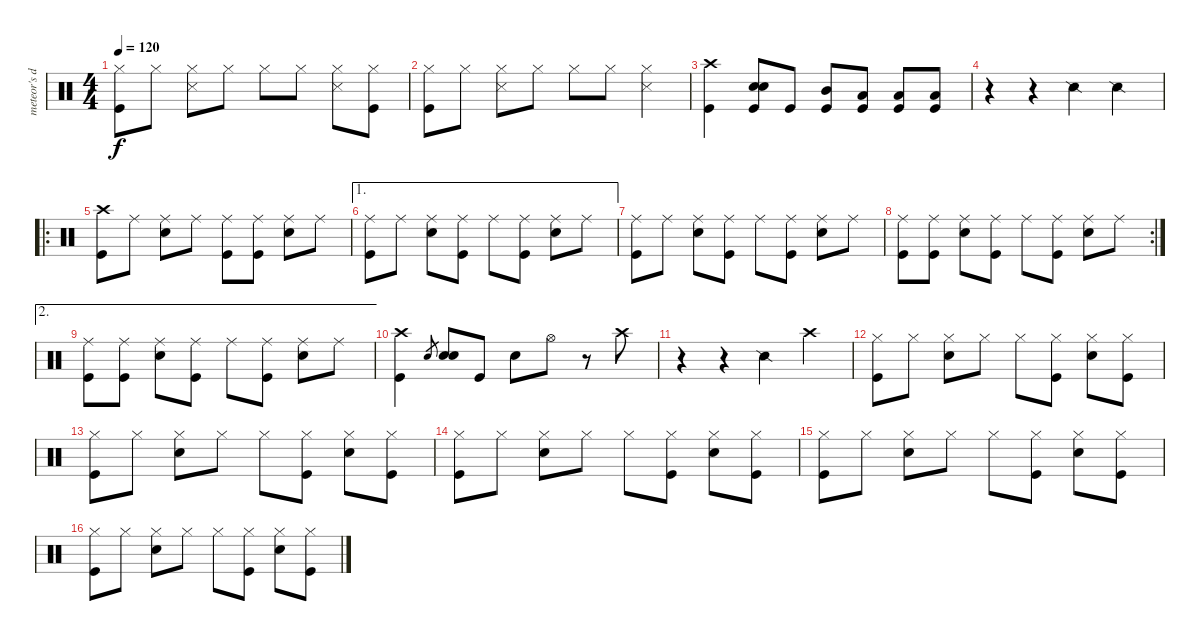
\track ("meteor's drum:)" "meteor's d") {instrument percussion}
\staff {score}
\articulation defaults
\ts (4 4)
\tempo 120
\clef neutral
\ks c
("Hi-Hat (closed)" "Kick (hit)").8{dy f} "Hi-Hat (closed)".8 ("Snare (side stick) 3" "Hi-Hat (closed)").8 "Hi-Hat (closed)".8 "Hi-Hat (closed)".8 "Hi-Hat (closed)".8 ("Snare (side stick) 3" "Hi-Hat (closed)").8 ("Kick (hit)" "Hi-Hat (closed)").8 |
("Hi-Hat (closed)" "Kick (hit)").8 "Hi-Hat (closed)".8 ("Snare (side stick) 3" "Hi-Hat (closed)").8 "Hi-Hat (closed)".8 "Hi-Hat (closed)".8 "Hi-Hat (closed)".8 ("Snare (side stick) 3" "Hi-Hat (closed)").4 |
("Kick (hit)" "Crash high (hit)").4 ("Kick (hit)" "Snare (hit) 2" "Snare (hit) 2").8 "Kick (hit)".8 ("Kick (hit)" "Mid Tom (hit)").8 ("Kick (hit)" "Low Floor Tom (hit)").8 ("Kick (hit)" "Low Floor Tom (hit)").8 ("Kick (hit)" "Low Floor Tom (hit)").8 |
r.4 r.4 "Snare (side stick) 2".4 "Snare (side stick) 2".4 |
\ro
("Crash high (hit)" "Kick (hit)").8 "Ride (middle)".8 ("Snare (hit) 2" "Ride (middle)").8 "Ride (middle)".8 ("Ride (middle)" "Kick (hit)").8 ("Kick (hit)" "Ride (middle)").8 ("Ride (middle)" "Snare (hit) 2").8 "Ride (middle)".8 |
\ae 1
("Ride (middle)" "Kick (hit)").8 "Ride (middle)".8 ("Snare (hit) 2" "Ride (middle)").8 ("Kick (hit)" "Ride (middle)").8 "Ride (middle)".8 ("Kick (hit)" "Ride (middle)").8 ("Ride (middle)" "Snare (hit) 2").8 "Ride (middle)".8 |
("Ride (middle)" "Kick (hit)").8 "Ride (middle)".8 ("Snare (hit) 2" "Ride (middle)").8 ("Kick (hit)" "Ride (middle)").8 "Ride (middle)".8 ("Kick (hit)" "Ride (middle)").8 ("Ride (middle)" "Snare (hit) 2").8 "Ride (middle)".8 |
\rc 2
("Ride (middle)" "Kick (hit)").8 ("Ride (middle)" "Kick (hit)").8 ("Snare (hit) 2" "Ride (middle)").8 ("Kick (hit)" "Ride (middle)").8 "Ride (middle)".8 ("Kick (hit)" "Ride (middle)").8 ("Ride (middle)" "Snare (hit) 2").8 "Ride (middle)".8 |
\ae 2
("Ride (middle)" "Kick (hit)").8 ("Ride (middle)" "Kick (hit)").8 ("Snare (hit) 2" "Ride (middle)").8 ("Kick (hit)" "Ride (middle)").8 "Ride (middle)".8 ("Kick (hit)" "Ride (middle)").8 ("Ride (middle)" "Snare (hit) 2").8 "Ride (middle)".8 |
("Crash high (hit)" "Kick (hit)").4 "Snare (hit) 2".8{gr} ("Snare (hit) 2" "Snare (hit) 2").8 "Kick (hit)".8 "Snare (hit) 2".8 "Hi-Hat (open)".8 r.8 "Crash high (hit)".8 |
r.4 r.4 "Snare (side stick) 2".4 "Crash high (hit)".4 |
("Hi-Hat (closed)" "Kick (hit)").8 "Hi-Hat (closed)".8 ("Hi-Hat (closed)" "Snare (hit) 2").8 "Hi-Hat (closed)".8 "Hi-Hat (closed)".8 ("Hi-Hat (closed)" "Kick (hit)").8 ("Hi-Hat (closed)" "Snare (hit) 2").8 ("Hi-Hat (closed)" "Kick (hit)").8 |
("Kick (hit)" "Hi-Hat (closed)").8 "Hi-Hat (closed)".8 ("Hi-Hat (closed)" "Snare (hit) 2").8 "Hi-Hat (closed)".8 "Hi-Hat (closed)".8 ("Hi-Hat (closed)" "Kick (hit)").8 ("Hi-Hat (closed)" "Snare (hit) 2").8 ("Hi-Hat (closed)" "Kick (hit)").8 |
("Kick (hit)" "Hi-Hat (closed)").8 "Hi-Hat (closed)".8 ("Hi-Hat (closed)" "Snare (hit) 2").8 "Hi-Hat (closed)".8 "Hi-Hat (closed)".8 ("Hi-Hat (closed)" "Kick (hit)").8 ("Hi-Hat (closed)" "Snare (hit) 2").8 ("Hi-Hat (closed)" "Kick (hit)").8 |
("Kick (hit)" "Hi-Hat (closed)").8 "Hi-Hat (closed)".8 ("Hi-Hat (closed)" "Snare (hit) 2").8 "Hi-Hat (closed)".8 "Hi-Hat (closed)".8 ("Hi-Hat (closed)" "Kick (hit)").8 ("Hi-Hat (closed)" "Snare (hit) 2").8 ("Hi-Hat (closed)" "Kick (hit)").8 |
("Kick (hit)" "Hi-Hat (closed)").8 "Hi-Hat (closed)".8 ("Hi-Hat (closed)" "Snare (hit) 2").8 "Hi-Hat (closed)".8 "Hi-Hat (closed)".8 ("Hi-Hat (closed)" "Kick (hit)").8 ("Hi-Hat (closed)" "Snare (hit) 2").8 ("Hi-Hat (closed)" "Kick (hit)").8
